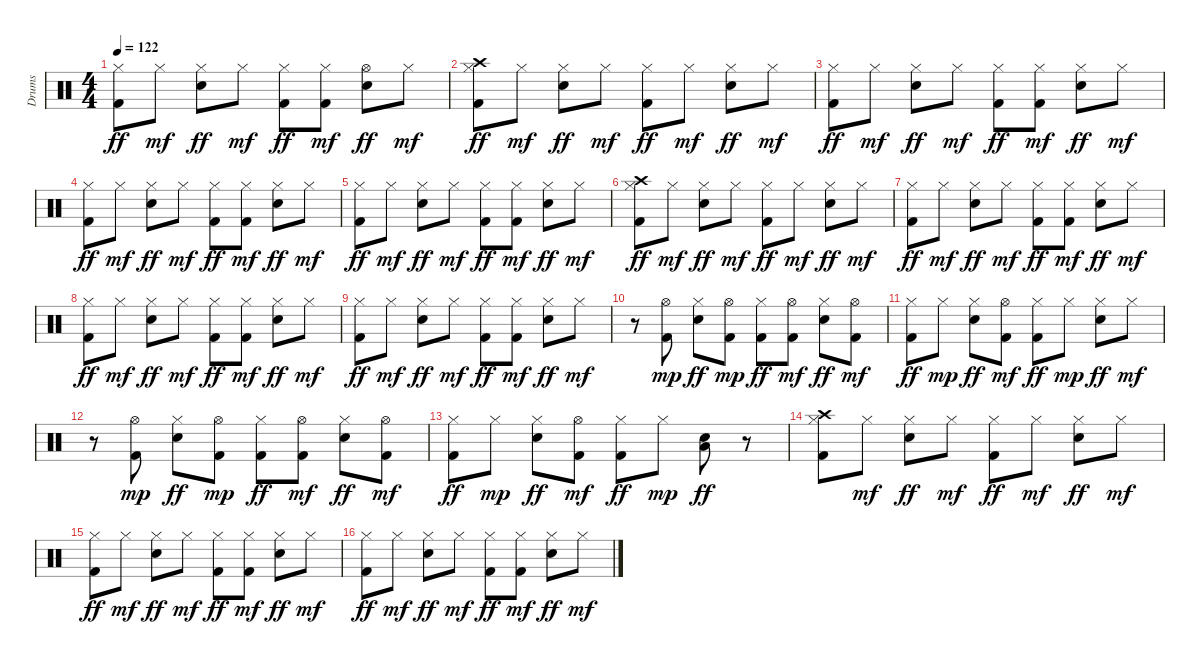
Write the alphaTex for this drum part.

\track ("Drums" "Drums") {instrument percussion}
\staff {score}
\articulation defaults
\ts (4 4)
\tempo 122
\clef neutral
\ks c
("Kick (hit) 2" "Hi-Hat (closed)").8{dy ff} "Hi-Hat (closed)".8{dy mf} ("Snare (hit) 2" "Hi-Hat (closed)").8{dy ff} "Hi-Hat (closed)".8{dy mf} ("Kick (hit) 2" "Hi-Hat (closed)").8{dy ff} ("Kick (hit) 2" "Hi-Hat (closed)").8{dy mf} ("Snare (hit) 2" "Hi-Hat (open)").8{dy ff} "Hi-Hat (closed)".8{dy mf} |
("Kick (hit) 2" "Hi-Hat (closed)" "Crash high (hit)").8{dy ff} "Hi-Hat (closed)".8{dy mf} ("Snare (hit) 2" "Hi-Hat (closed)").8{dy ff} "Hi-Hat (closed)".8{dy mf} ("Kick (hit) 2" "Hi-Hat (closed)").8{dy ff} "Hi-Hat (closed)".8{dy mf} ("Snare (hit) 2" "Hi-Hat (closed)").8{dy ff} "Hi-Hat (closed)".8{dy mf} |
("Kick (hit) 2" "Hi-Hat (closed)").8{dy ff} "Hi-Hat (closed)".8{dy mf} ("Snare (hit) 2" "Hi-Hat (closed)").8{dy ff} "Hi-Hat (closed)".8{dy mf} ("Kick (hit) 2" "Hi-Hat (closed)").8{dy ff} ("Kick (hit) 2" "Hi-Hat (closed)").8{dy mf} ("Snare (hit) 2" "Hi-Hat (closed)").8{dy ff} "Hi-Hat (closed)".8{dy mf} |
("Kick (hit) 2" "Hi-Hat (closed)").8{dy ff} "Hi-Hat (closed)".8{dy mf} ("Snare (hit) 2" "Hi-Hat (closed)").8{dy ff} "Hi-Hat (closed)".8{dy mf} ("Kick (hit) 2" "Hi-Hat (closed)").8{dy ff} ("Kick (hit) 2" "Hi-Hat (closed)").8{dy mf} ("Snare (hit) 2" "Hi-Hat (closed)").8{dy ff} "Hi-Hat (closed)".8{dy mf} |
("Kick (hit) 2" "Hi-Hat (closed)").8{dy ff} "Hi-Hat (closed)".8{dy mf} ("Snare (hit) 2" "Hi-Hat (closed)").8{dy ff} "Hi-Hat (closed)".8{dy mf} ("Kick (hit) 2" "Hi-Hat (closed)").8{dy ff} ("Kick (hit) 2" "Hi-Hat (closed)").8{dy mf} ("Snare (hit) 2" "Hi-Hat (closed)").8{dy ff} "Hi-Hat (closed)".8{dy mf} |
("Kick (hit) 2" "Hi-Hat (closed)" "Crash high (hit)").8{dy ff} "Hi-Hat (closed)".8{dy mf} ("Snare (hit) 2" "Hi-Hat (closed)").8{dy ff} "Hi-Hat (closed)".8{dy mf} ("Kick (hit) 2" "Hi-Hat (closed)").8{dy ff} "Hi-Hat (closed)".8{dy mf} ("Snare (hit) 2" "Hi-Hat (closed)").8{dy ff} "Hi-Hat (closed)".8{dy mf} |
("Kick (hit) 2" "Hi-Hat (closed)").8{dy ff} "Hi-Hat (closed)".8{dy mf} ("Snare (hit) 2" "Hi-Hat (closed)").8{dy ff} "Hi-Hat (closed)".8{dy mf} ("Kick (hit) 2" "Hi-Hat (closed)").8{dy ff} ("Kick (hit) 2" "Hi-Hat (closed)").8{dy mf} ("Snare (hit) 2" "Hi-Hat (closed)").8{dy ff} "Hi-Hat (closed)".8{dy mf} |
("Kick (hit) 2" "Hi-Hat (closed)").8{dy ff} "Hi-Hat (closed)".8{dy mf} ("Snare (hit) 2" "Hi-Hat (closed)").8{dy ff} "Hi-Hat (closed)".8{dy mf} ("Kick (hit) 2" "Hi-Hat (closed)").8{dy ff} ("Kick (hit) 2" "Hi-Hat (closed)").8{dy mf} ("Snare (hit) 2" "Hi-Hat (closed)").8{dy ff} "Hi-Hat (closed)".8{dy mf} |
("Kick (hit) 2" "Hi-Hat (closed)").8{dy ff} "Hi-Hat (closed)".8{dy mf} ("Snare (hit) 2" "Hi-Hat (closed)").8{dy ff} "Hi-Hat (closed)".8{dy mf} ("Kick (hit) 2" "Hi-Hat (closed)").8{dy ff} ("Kick (hit) 2" "Hi-Hat (closed)").8{dy mf} ("Snare (hit) 2" "Hi-Hat (closed)").8{dy ff} "Hi-Hat (closed)".8{dy mf} |
r.8 ("Kick (hit) 2" "Hi-Hat (open)").8{dy mp} ("Snare (hit) 2" "Hi-Hat (closed)").8{dy ff} ("Kick (hit) 2" "Hi-Hat (open)").8{dy mp} ("Kick (hit) 2" "Hi-Hat (closed)").8{dy ff} ("Kick (hit) 2" "Hi-Hat (open)").8{dy mf} ("Snare (hit) 2" "Hi-Hat (closed)").8{dy ff} ("Kick (hit) 2" "Hi-Hat (open)").8{dy mf} |
("Kick (hit) 2" "Hi-Hat (closed)").8{dy ff} "Hi-Hat (closed)".8{dy mp} ("Snare (hit) 2" "Hi-Hat (closed)").8{dy ff} ("Kick (hit) 2" "Hi-Hat (open)").8{dy mf} ("Kick (hit) 2" "Hi-Hat (closed)").8{dy ff} "Hi-Hat (closed)".8{dy mp} ("Snare (hit) 2" "Hi-Hat (closed)").8{dy ff} "Hi-Hat (closed)".8{dy mf} |
r.8 ("Kick (hit) 2" "Hi-Hat (open)").8{dy mp} ("Snare (hit) 2" "Hi-Hat (closed)").8{dy ff} ("Kick (hit) 2" "Hi-Hat (open)").8{dy mp} ("Kick (hit) 2" "Hi-Hat (closed)").8{dy ff} ("Kick (hit) 2" "Hi-Hat (open)").8{dy mf} ("Snare (hit) 2" "Hi-Hat (closed)").8{dy ff} ("Kick (hit) 2" "Hi-Hat (open)").8{dy mf} |
("Kick (hit) 2" "Hi-Hat (closed)").8{dy ff} "Hi-Hat (closed)".8{dy mp} ("Snare (hit) 2" "Hi-Hat (closed)").8{dy ff} ("Kick (hit) 2" "Hi-Hat (open)").8{dy mf} ("Kick (hit) 2" "Hi-Hat (closed)").8{dy ff} "Hi-Hat (closed)".8{dy mp} ("Snare (hit) 2" "Low Floor Tom (hit)").8{dy ff} r.8 |
("Kick (hit) 2" "Hi-Hat (closed)" "Crash high (hit)").8 "Hi-Hat (closed)".8{dy mf} ("Snare (hit) 2" "Hi-Hat (closed)").8{dy ff} "Hi-Hat (closed)".8{dy mf} ("Kick (hit) 2" "Hi-Hat (closed)").8{dy ff} "Hi-Hat (closed)".8{dy mf} ("Snare (hit) 2" "Hi-Hat (closed)").8{dy ff} "Hi-Hat (closed)".8{dy mf} |
("Kick (hit) 2" "Hi-Hat (closed)").8{dy ff} "Hi-Hat (closed)".8{dy mf} ("Snare (hit) 2" "Hi-Hat (closed)").8{dy ff} "Hi-Hat (closed)".8{dy mf} ("Kick (hit) 2" "Hi-Hat (closed)").8{dy ff} ("Kick (hit) 2" "Hi-Hat (closed)").8{dy mf} ("Snare (hit) 2" "Hi-Hat (closed)").8{dy ff} "Hi-Hat (closed)".8{dy mf} |
("Kick (hit) 2" "Hi-Hat (closed)").8{dy ff} "Hi-Hat (closed)".8{dy mf} ("Snare (hit) 2" "Hi-Hat (closed)").8{dy ff} "Hi-Hat (closed)".8{dy mf} ("Kick (hit) 2" "Hi-Hat (closed)").8{dy ff} ("Kick (hit) 2" "Hi-Hat (closed)").8{dy mf} ("Snare (hit) 2" "Hi-Hat (closed)").8{dy ff} "Hi-Hat (closed)".8{dy mf}
